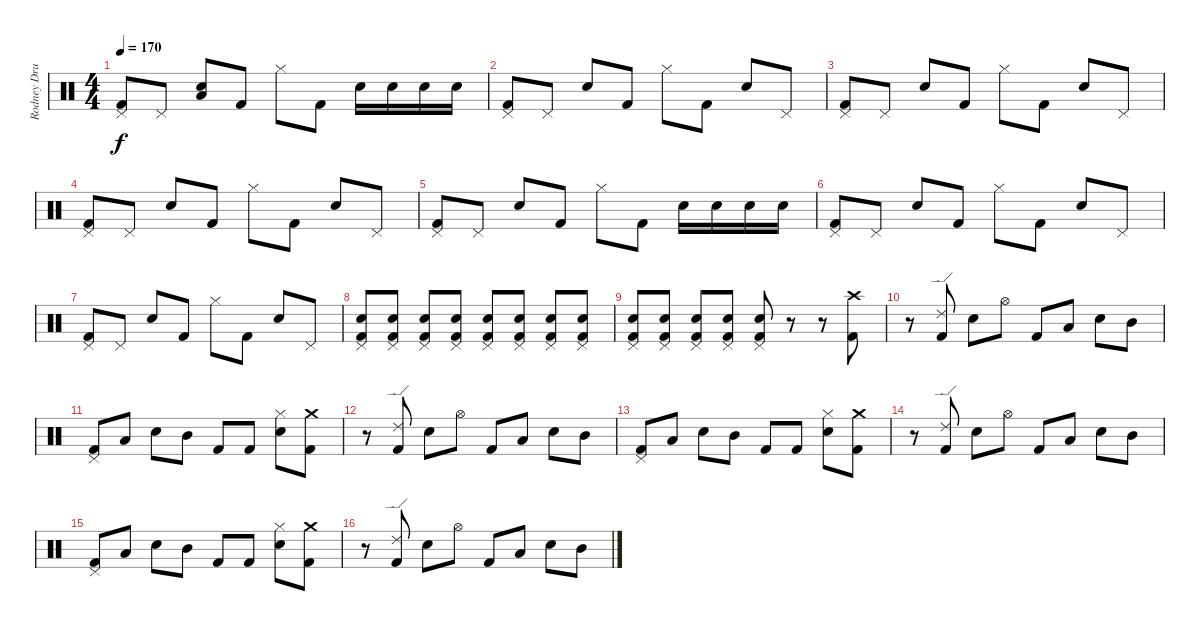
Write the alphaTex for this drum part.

\track ("Rodney Drums" "Rodney Dru") {instrument percussion}
\staff {score}
\articulation defaults
\ts (4 4)
\tempo 170
\clef neutral
\ks c
("Pedal Hi-Hat (hit)" "Kick (hit) 2").8{dy f} "Pedal Hi-Hat (hit)".8 ("Electric Snare (hit)" "Low Tom (hit)").8 "Kick (hit) 2".8 "Hi-Hat (closed)".8 "Kick (hit) 2".8 "Electric Snare (hit)".16 "Electric Snare (hit)".16 "Electric Snare (hit)".16 "Electric Snare (hit)".16 |
("Pedal Hi-Hat (hit)" "Kick (hit) 2").8 "Pedal Hi-Hat (hit)".8 "Electric Snare (hit)".8 "Kick (hit) 2".8 "Hi-Hat (closed)".8 "Kick (hit) 2".8 "Electric Snare (hit)".8 "Pedal Hi-Hat (hit)".8 |
("Pedal Hi-Hat (hit)" "Kick (hit) 2").8 "Pedal Hi-Hat (hit)".8 "Electric Snare (hit)".8 "Kick (hit) 2".8 "Hi-Hat (closed)".8 "Kick (hit) 2".8 "Electric Snare (hit)".8 "Pedal Hi-Hat (hit)".8 |
("Pedal Hi-Hat (hit)" "Kick (hit) 2").8 "Pedal Hi-Hat (hit)".8 "Electric Snare (hit)".8 "Kick (hit) 2".8 "Hi-Hat (closed)".8 "Kick (hit) 2".8 "Electric Snare (hit)".8 "Pedal Hi-Hat (hit)".8 |
("Pedal Hi-Hat (hit)" "Kick (hit) 2").8 "Pedal Hi-Hat (hit)".8 "Electric Snare (hit)".8 "Kick (hit) 2".8 "Hi-Hat (closed)".8 "Kick (hit) 2".8 "Electric Snare (hit)".16 "Electric Snare (hit)".16 "Electric Snare (hit)".16 "Electric Snare (hit)".16 |
("Pedal Hi-Hat (hit)" "Kick (hit) 2").8 "Pedal Hi-Hat (hit)".8 "Electric Snare (hit)".8 "Kick (hit) 2".8 "Hi-Hat (closed)".8 "Kick (hit) 2".8 "Electric Snare (hit)".8 "Pedal Hi-Hat (hit)".8 |
("Pedal Hi-Hat (hit)" "Kick (hit) 2").8 "Pedal Hi-Hat (hit)".8 "Electric Snare (hit)".8 "Kick (hit) 2".8 "Hi-Hat (closed)".8 "Kick (hit) 2".8 "Electric Snare (hit)".8 "Pedal Hi-Hat (hit)".8 |
("Pedal Hi-Hat (hit)" "Electric Snare (hit)" "Kick (hit) 2").8 ("Pedal Hi-Hat (hit)" "Electric Snare (hit)" "Kick (hit) 2").8 ("Pedal Hi-Hat (hit)" "Electric Snare (hit)" "Kick (hit) 2").8 ("Pedal Hi-Hat (hit)" "Electric Snare (hit)" "Kick (hit) 2").8 ("Pedal Hi-Hat (hit)" "Electric Snare (hit)" "Kick (hit) 2").8 ("Pedal Hi-Hat (hit)" "Electric Snare (hit)" "Kick (hit) 2").8 ("Pedal Hi-Hat (hit)" "Electric Snare (hit)" "Kick (hit) 2").8 ("Pedal Hi-Hat (hit)" "Electric Snare (hit)" "Kick (hit) 2").8 |
("Pedal Hi-Hat (hit)" "Electric Snare (hit)" "Kick (hit) 2").8 ("Pedal Hi-Hat (hit)" "Electric Snare (hit)" "Kick (hit) 2").8 ("Pedal Hi-Hat (hit)" "Electric Snare (hit)" "Kick (hit) 2").8 ("Pedal Hi-Hat (hit)" "Electric Snare (hit)" "Kick (hit) 2").8 ("Pedal Hi-Hat (hit)" "Electric Snare (hit)" "Kick (hit) 2").8 r.8 r.8 ("Crash high (hit)" "Kick (hit) 2").8 |
r.8 ("Ride (edge) 2" "Kick (hit) 2").8 "Electric Snare (hit)".8 "Hi-Hat (open)".8 "Kick (hit) 2".8 "Low Tom (hit)".8 "Electric Snare (hit)".8 "Mid Tom (hit)".8 |
("Pedal Hi-Hat (hit)" "Kick (hit) 2").8 "Low Tom (hit)".8 "Electric Snare (hit)".8 "Mid Tom (hit)".8 "Kick (hit) 2".8 "Kick (hit) 2".8 ("Hi-Hat (closed)" "Electric Snare (hit)").8 ("Crash medium (hit)" "Kick (hit) 2").8 |
r.8 ("Ride (edge) 2" "Kick (hit) 2").8 "Electric Snare (hit)".8 "Hi-Hat (open)".8 "Kick (hit) 2".8 "Low Tom (hit)".8 "Electric Snare (hit)".8 "Mid Tom (hit)".8 |
("Pedal Hi-Hat (hit)" "Kick (hit) 2").8 "Low Tom (hit)".8 "Electric Snare (hit)".8 "Mid Tom (hit)".8 "Kick (hit) 2".8 "Kick (hit) 2".8 ("Hi-Hat (closed)" "Electric Snare (hit)").8 ("Crash medium (hit)" "Kick (hit) 2").8 |
r.8 ("Ride (edge) 2" "Kick (hit) 2").8 "Electric Snare (hit)".8 "Hi-Hat (open)".8 "Kick (hit) 2".8 "Low Tom (hit)".8 "Electric Snare (hit)".8 "Mid Tom (hit)".8 |
("Pedal Hi-Hat (hit)" "Kick (hit) 2").8 "Low Tom (hit)".8 "Electric Snare (hit)".8 "Mid Tom (hit)".8 "Kick (hit) 2".8 "Kick (hit) 2".8 ("Hi-Hat (closed)" "Electric Snare (hit)").8 ("Crash medium (hit)" "Kick (hit) 2").8 |
r.8 ("Ride (edge) 2" "Kick (hit) 2").8 "Electric Snare (hit)".8 "Hi-Hat (open)".8 "Kick (hit) 2".8 "Low Tom (hit)".8 "Electric Snare (hit)".8 "Mid Tom (hit)".8
